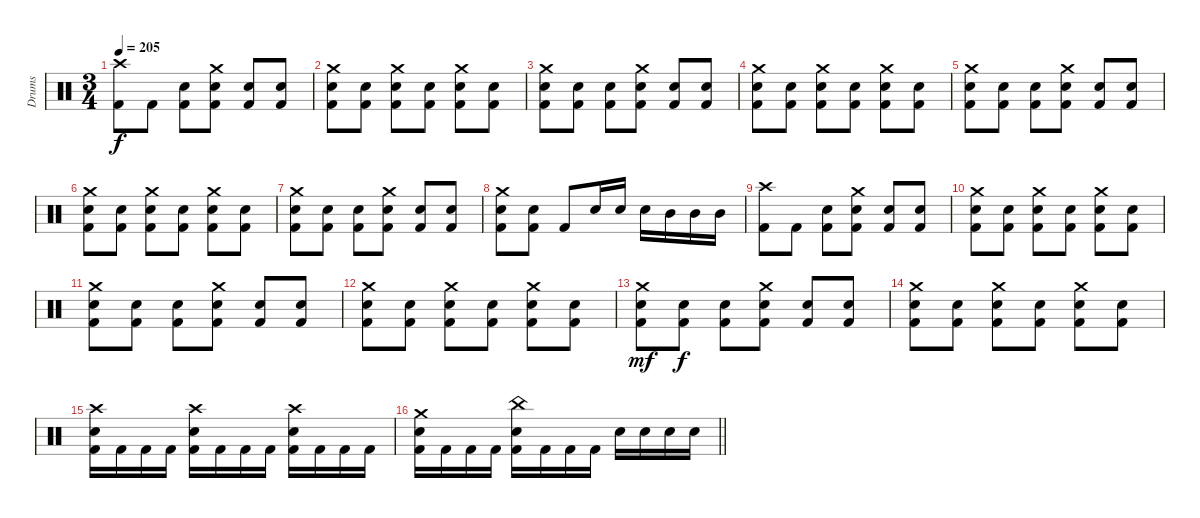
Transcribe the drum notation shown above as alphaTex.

\track ("Drums" "Drums") {instrument percussion}
\staff {score}
\articulation defaults
\ts (3 4)
\tempo 205
\clef neutral
\ks c
("Crash high (hit)" "Kick (hit) 2").8{dy f} "Kick (hit) 2".8 ("Snare (hit) 2" "Kick (hit) 2").8 ("Crash medium (hit)" "Snare (hit) 2" "Kick (hit) 2").8 ("Snare (hit) 2" "Kick (hit) 2").8 ("Snare (hit) 2" "Kick (hit) 2").8 |
("Crash medium (hit)" "Snare (hit) 2" "Kick (hit) 2").8 ("Snare (hit) 2" "Kick (hit) 2").8 ("Crash medium (hit)" "Snare (hit) 2" "Kick (hit) 2").8 ("Snare (hit) 2" "Kick (hit) 2").8 ("Crash medium (hit)" "Snare (hit) 2" "Kick (hit) 2").8 ("Snare (hit) 2" "Kick (hit) 2").8 |
("Crash medium (hit)" "Snare (hit) 2" "Kick (hit) 2").8 ("Snare (hit) 2" "Kick (hit) 2").8 ("Snare (hit) 2" "Kick (hit) 2").8 ("Crash medium (hit)" "Snare (hit) 2" "Kick (hit) 2").8 ("Snare (hit) 2" "Kick (hit) 2").8 ("Snare (hit) 2" "Kick (hit) 2").8 |
("Crash medium (hit)" "Snare (hit) 2" "Kick (hit) 2").8 ("Snare (hit) 2" "Kick (hit) 2").8 ("Crash medium (hit)" "Snare (hit) 2" "Kick (hit) 2").8 ("Snare (hit) 2" "Kick (hit) 2").8 ("Crash medium (hit)" "Snare (hit) 2" "Kick (hit) 2").8 ("Snare (hit) 2" "Kick (hit) 2").8 |
("Crash medium (hit)" "Snare (hit) 2" "Kick (hit) 2").8 ("Snare (hit) 2" "Kick (hit) 2").8 ("Snare (hit) 2" "Kick (hit) 2").8 ("Crash medium (hit)" "Snare (hit) 2" "Kick (hit) 2").8 ("Snare (hit) 2" "Kick (hit) 2").8 ("Snare (hit) 2" "Kick (hit) 2").8 |
("Crash medium (hit)" "Snare (hit) 2" "Kick (hit) 2").8 ("Snare (hit) 2" "Kick (hit) 2").8 ("Crash medium (hit)" "Snare (hit) 2" "Kick (hit) 2").8 ("Snare (hit) 2" "Kick (hit) 2").8 ("Crash medium (hit)" "Snare (hit) 2" "Kick (hit) 2").8 ("Snare (hit) 2" "Kick (hit) 2").8 |
("Crash medium (hit)" "Snare (hit) 2" "Kick (hit) 2").8 ("Snare (hit) 2" "Kick (hit) 2").8 ("Snare (hit) 2" "Kick (hit) 2").8 ("Crash medium (hit)" "Snare (hit) 2" "Kick (hit) 2").8 ("Snare (hit) 2" "Kick (hit) 2").8 ("Snare (hit) 2" "Kick (hit) 2").8 |
("Crash medium (hit)" "Snare (hit) 2" "Kick (hit) 2").8 ("Snare (hit) 2" "Kick (hit) 2").8 "Kick (hit) 2".8 "Snare (hit) 2".16 "Snare (hit) 2".16 "Snare (hit) 2".16 "Mid Tom (hit)".16 "Mid Tom (hit)".16 "Mid Tom (hit)".16 |
("Crash high (hit)" "Kick (hit) 2").8 "Kick (hit) 2".8 ("Snare (hit) 2" "Kick (hit) 2").8 ("Crash medium (hit)" "Snare (hit) 2" "Kick (hit) 2").8 ("Snare (hit) 2" "Kick (hit) 2").8 ("Snare (hit) 2" "Kick (hit) 2").8 |
("Crash medium (hit)" "Snare (hit) 2" "Kick (hit) 2").8 ("Snare (hit) 2" "Kick (hit) 2").8 ("Crash medium (hit)" "Snare (hit) 2" "Kick (hit) 2").8 ("Snare (hit) 2" "Kick (hit) 2").8 ("Crash medium (hit)" "Snare (hit) 2" "Kick (hit) 2").8 ("Snare (hit) 2" "Kick (hit) 2").8 |
("Crash medium (hit)" "Snare (hit) 2" "Kick (hit) 2").8 ("Snare (hit) 2" "Kick (hit) 2").8 ("Snare (hit) 2" "Kick (hit) 2").8 ("Crash medium (hit)" "Snare (hit) 2" "Kick (hit) 2").8 ("Snare (hit) 2" "Kick (hit) 2").8 ("Snare (hit) 2" "Kick (hit) 2").8 |
("Crash medium (hit)" "Snare (hit) 2" "Kick (hit) 2").8 ("Snare (hit) 2" "Kick (hit) 2").8 ("Crash medium (hit)" "Snare (hit) 2" "Kick (hit) 2").8 ("Snare (hit) 2" "Kick (hit) 2").8 ("Crash medium (hit)" "Snare (hit) 2" "Kick (hit) 2").8 ("Snare (hit) 2" "Kick (hit) 2").8 |
("Crash medium (hit)" "Snare (hit) 2" "Kick (hit) 2").8{dy mf} ("Snare (hit) 2" "Kick (hit) 2").8{dy f} ("Snare (hit) 2" "Kick (hit) 2").8 ("Crash medium (hit)" "Snare (hit) 2" "Kick (hit) 2").8 ("Snare (hit) 2" "Kick (hit) 2").8 ("Snare (hit) 2" "Kick (hit) 2").8 |
("Crash medium (hit)" "Snare (hit) 2" "Kick (hit) 2").8 ("Snare (hit) 2" "Kick (hit) 2").8 ("Crash medium (hit)" "Snare (hit) 2" "Kick (hit) 2").8 ("Snare (hit) 2" "Kick (hit) 2").8 ("Crash medium (hit)" "Snare (hit) 2" "Kick (hit) 2").8 ("Snare (hit) 2" "Kick (hit) 2").8 |
("Crash high (hit)" "Snare (hit) 2" "Kick (hit) 2").16 "Kick (hit) 2".16 "Kick (hit) 2".16 "Kick (hit) 2".16 ("Crash high (hit)" "Snare (hit) 2" "Kick (hit) 2").16 "Kick (hit) 2".16 "Kick (hit) 2".16 "Kick (hit) 2".16 ("Crash high (hit)" "Snare (hit) 2" "Kick (hit) 2").16 "Kick (hit) 2".16 "Kick (hit) 2".16 "Kick (hit) 2".16 |
\barLineRight lightlight
("Crash medium (hit)" "Snare (hit) 2" "Kick (hit) 2").16 "Kick (hit) 2".16 "Kick (hit) 2".16 "Kick (hit) 2".16 ("China (hit)" "Snare (hit) 2" "Kick (hit) 2").16 "Kick (hit) 2".16 "Kick (hit) 2".16 "Kick (hit) 2".16 "Snare (hit) 2".16 "Snare (hit) 2".16 "Snare (hit) 2".16 "Snare (hit) 2".16
